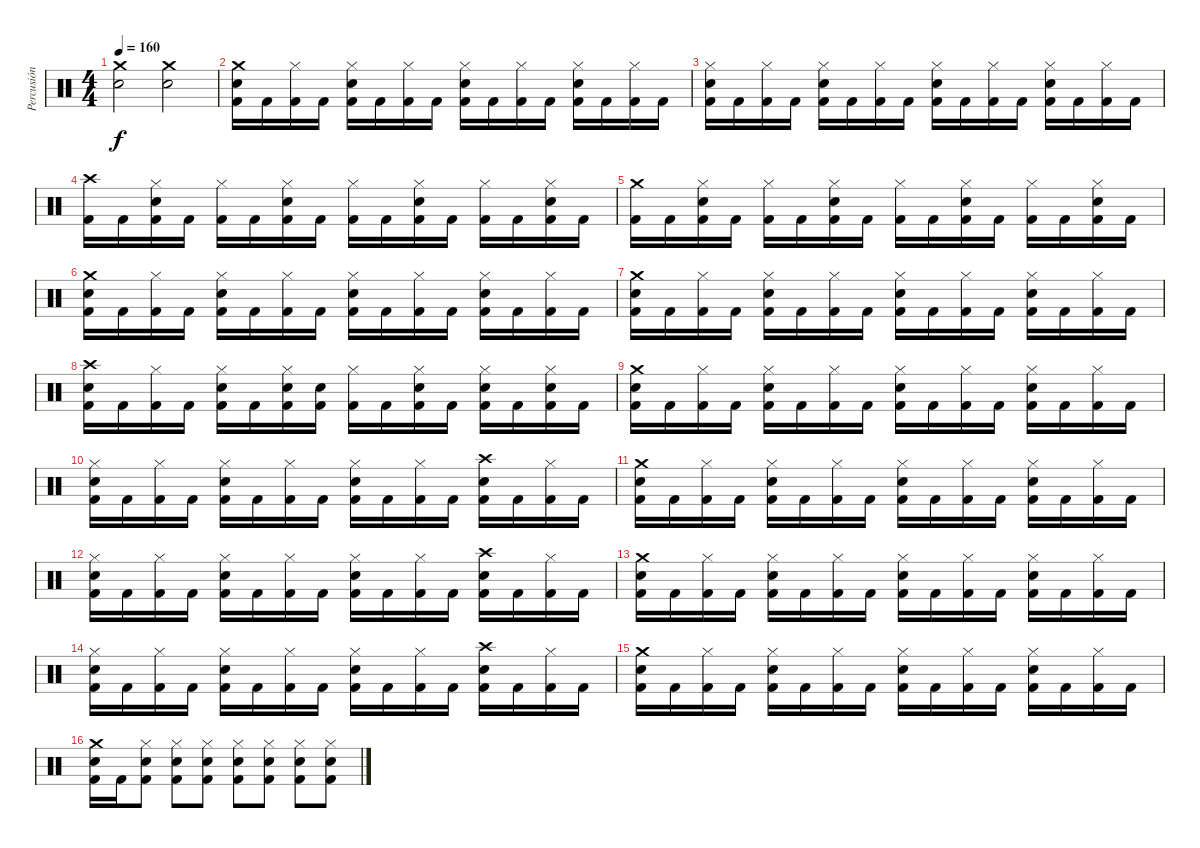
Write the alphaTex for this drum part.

\track ("Percusión" "Percusión") {instrument percussion}
\staff {score}
\articulation defaults
\ts (4 4)
\tempo 160
\clef neutral
\ks c
("Crash medium (hit)" "Snare (hit) 2").2{dy f} ("Crash medium (hit)" "Snare (hit) 2").2 |
("Crash medium (hit)" "Snare (hit) 2" "Kick (hit) 2").16 "Kick (hit) 2".16 ("Hi-Hat (closed)" "Kick (hit) 2").16 "Kick (hit) 2".16 ("Hi-Hat (closed)" "Snare (hit) 2" "Kick (hit) 2").16 "Kick (hit) 2".16 ("Hi-Hat (closed)" "Kick (hit) 2").16 "Kick (hit) 2".16 ("Hi-Hat (closed)" "Snare (hit) 2" "Kick (hit) 2").16 "Kick (hit) 2".16 ("Hi-Hat (closed)" "Kick (hit) 2").16 "Kick (hit) 2".16 ("Hi-Hat (closed)" "Snare (hit) 2" "Kick (hit) 2").16 "Kick (hit) 2".16 ("Hi-Hat (closed)" "Kick (hit) 2").16 "Kick (hit) 2".16 |
("Hi-Hat (closed)" "Snare (hit) 2" "Kick (hit) 2").16 "Kick (hit) 2".16 ("Hi-Hat (closed)" "Kick (hit) 2").16 "Kick (hit) 2".16 ("Hi-Hat (closed)" "Snare (hit) 2" "Kick (hit) 2").16 "Kick (hit) 2".16 ("Hi-Hat (closed)" "Kick (hit) 2").16 "Kick (hit) 2".16 ("Hi-Hat (closed)" "Snare (hit) 2" "Kick (hit) 2").16 "Kick (hit) 2".16 ("Hi-Hat (closed)" "Kick (hit) 2").16 "Kick (hit) 2".16 ("Hi-Hat (closed)" "Snare (hit) 2" "Kick (hit) 2").16 "Kick (hit) 2".16 ("Hi-Hat (closed)" "Kick (hit) 2").16 "Kick (hit) 2".16 |
("Crash high (hit)" "Kick (hit) 2").16 "Kick (hit) 2".16 ("Hi-Hat (closed)" "Snare (hit) 2" "Kick (hit) 2").16 "Kick (hit) 2".16 ("Hi-Hat (closed)" "Kick (hit) 2").16 "Kick (hit) 2".16 ("Hi-Hat (closed)" "Snare (hit) 2" "Kick (hit) 2").16 "Kick (hit) 2".16 ("Hi-Hat (closed)" "Kick (hit) 2").16 "Kick (hit) 2".16 ("Hi-Hat (closed)" "Snare (hit) 2" "Kick (hit) 2").16 "Kick (hit) 2".16 ("Hi-Hat (closed)" "Kick (hit) 2").16 "Kick (hit) 2".16 ("Hi-Hat (closed)" "Snare (hit) 2" "Kick (hit) 2").16 "Kick (hit) 2".16 |
("Crash medium (hit)" "Kick (hit) 2").16 "Kick (hit) 2".16 ("Hi-Hat (closed)" "Snare (hit) 2" "Kick (hit) 2").16 "Kick (hit) 2".16 ("Hi-Hat (closed)" "Kick (hit) 2").16 "Kick (hit) 2".16 ("Hi-Hat (closed)" "Snare (hit) 2" "Kick (hit) 2").16 "Kick (hit) 2".16 ("Hi-Hat (closed)" "Kick (hit) 2").16 "Kick (hit) 2".16 ("Hi-Hat (closed)" "Snare (hit) 2" "Kick (hit) 2").16 "Kick (hit) 2".16 ("Hi-Hat (closed)" "Kick (hit) 2").16 "Kick (hit) 2".16 ("Hi-Hat (closed)" "Snare (hit) 2" "Kick (hit) 2").16 "Kick (hit) 2".16 |
("Crash medium (hit)" "Snare (hit) 2" "Kick (hit) 2").16 "Kick (hit) 2".16 ("Hi-Hat (closed)" "Kick (hit) 2").16 "Kick (hit) 2".16 ("Hi-Hat (closed)" "Snare (hit) 2" "Kick (hit) 2").16 "Kick (hit) 2".16 ("Hi-Hat (closed)" "Kick (hit) 2").16 "Kick (hit) 2".16 ("Hi-Hat (closed)" "Snare (hit) 2" "Kick (hit) 2").16 "Kick (hit) 2".16 ("Hi-Hat (closed)" "Kick (hit) 2").16 "Kick (hit) 2".16 ("Hi-Hat (closed)" "Snare (hit) 2" "Kick (hit) 2").16 "Kick (hit) 2".16 ("Hi-Hat (closed)" "Kick (hit) 2").16 "Kick (hit) 2".16 |
("Crash medium (hit)" "Snare (hit) 2" "Kick (hit) 2").16 "Kick (hit) 2".16 ("Hi-Hat (closed)" "Kick (hit) 2").16 "Kick (hit) 2".16 ("Hi-Hat (closed)" "Snare (hit) 2" "Kick (hit) 2").16 "Kick (hit) 2".16 ("Hi-Hat (closed)" "Kick (hit) 2").16 "Kick (hit) 2".16 ("Hi-Hat (closed)" "Snare (hit) 2" "Kick (hit) 2").16 "Kick (hit) 2".16 ("Hi-Hat (closed)" "Kick (hit) 2").16 "Kick (hit) 2".16 ("Hi-Hat (closed)" "Snare (hit) 2" "Kick (hit) 2").16 "Kick (hit) 2".16 ("Hi-Hat (closed)" "Kick (hit) 2").16 "Kick (hit) 2".16 |
("Crash high (hit)" "Snare (hit) 2" "Kick (hit) 2").16 "Kick (hit) 2".16 ("Hi-Hat (closed)" "Kick (hit) 2").16 "Kick (hit) 2".16 ("Hi-Hat (closed)" "Snare (hit) 2" "Kick (hit) 2").16 "Kick (hit) 2".16 ("Hi-Hat (closed)" "Snare (hit) 2" "Kick (hit) 2").16 ("Snare (hit) 2" "Kick (hit) 2").16 ("Hi-Hat (closed)" "Kick (hit) 2").16 "Kick (hit) 2".16 ("Hi-Hat (closed)" "Snare (hit) 2" "Kick (hit) 2").16 "Kick (hit) 2".16 ("Hi-Hat (closed)" "Snare (hit) 2" "Kick (hit) 2").16 "Kick (hit) 2".16 ("Hi-Hat (closed)" "Snare (hit) 2" "Kick (hit) 2").16 "Kick (hit) 2".16 |
("Crash medium (hit)" "Snare (hit) 2" "Kick (hit) 2").16 "Kick (hit) 2".16 ("Hi-Hat (closed)" "Kick (hit) 2").16 "Kick (hit) 2".16 ("Hi-Hat (closed)" "Snare (hit) 2" "Kick (hit) 2").16 "Kick (hit) 2".16 ("Hi-Hat (closed)" "Kick (hit) 2").16 "Kick (hit) 2".16 ("Hi-Hat (closed)" "Snare (hit) 2" "Kick (hit) 2").16 "Kick (hit) 2".16 ("Hi-Hat (closed)" "Kick (hit) 2").16 "Kick (hit) 2".16 ("Hi-Hat (closed)" "Snare (hit) 2" "Kick (hit) 2").16 "Kick (hit) 2".16 ("Hi-Hat (closed)" "Kick (hit) 2").16 "Kick (hit) 2".16 |
("Hi-Hat (closed)" "Snare (hit) 2" "Kick (hit) 2").16 "Kick (hit) 2".16 ("Hi-Hat (closed)" "Kick (hit) 2").16 "Kick (hit) 2".16 ("Hi-Hat (closed)" "Snare (hit) 2" "Kick (hit) 2").16 "Kick (hit) 2".16 ("Hi-Hat (closed)" "Kick (hit) 2").16 "Kick (hit) 2".16 ("Hi-Hat (closed)" "Snare (hit) 2" "Kick (hit) 2").16 "Kick (hit) 2".16 ("Hi-Hat (closed)" "Kick (hit) 2").16 "Kick (hit) 2".16 ("Crash high (hit)" "Snare (hit) 2" "Kick (hit) 2").16 "Kick (hit) 2".16 ("Hi-Hat (closed)" "Kick (hit) 2").16 "Kick (hit) 2".16 |
("Crash medium (hit)" "Snare (hit) 2" "Kick (hit) 2").16 "Kick (hit) 2".16 ("Hi-Hat (closed)" "Kick (hit) 2").16 "Kick (hit) 2".16 ("Hi-Hat (closed)" "Snare (hit) 2" "Kick (hit) 2").16 "Kick (hit) 2".16 ("Hi-Hat (closed)" "Kick (hit) 2").16 "Kick (hit) 2".16 ("Hi-Hat (closed)" "Snare (hit) 2" "Kick (hit) 2").16 "Kick (hit) 2".16 ("Hi-Hat (closed)" "Kick (hit) 2").16 "Kick (hit) 2".16 ("Hi-Hat (closed)" "Snare (hit) 2" "Kick (hit) 2").16 "Kick (hit) 2".16 ("Hi-Hat (closed)" "Kick (hit) 2").16 "Kick (hit) 2".16 |
("Hi-Hat (closed)" "Snare (hit) 2" "Kick (hit) 2").16 "Kick (hit) 2".16 ("Hi-Hat (closed)" "Kick (hit) 2").16 "Kick (hit) 2".16 ("Hi-Hat (closed)" "Snare (hit) 2" "Kick (hit) 2").16 "Kick (hit) 2".16 ("Hi-Hat (closed)" "Kick (hit) 2").16 "Kick (hit) 2".16 ("Hi-Hat (closed)" "Snare (hit) 2" "Kick (hit) 2").16 "Kick (hit) 2".16 ("Hi-Hat (closed)" "Kick (hit) 2").16 "Kick (hit) 2".16 ("Crash high (hit)" "Snare (hit) 2" "Kick (hit) 2").16 "Kick (hit) 2".16 ("Hi-Hat (closed)" "Kick (hit) 2").16 "Kick (hit) 2".16 |
("Crash medium (hit)" "Snare (hit) 2" "Kick (hit) 2").16 "Kick (hit) 2".16 ("Hi-Hat (closed)" "Kick (hit) 2").16 "Kick (hit) 2".16 ("Hi-Hat (closed)" "Snare (hit) 2" "Kick (hit) 2").16 "Kick (hit) 2".16 ("Hi-Hat (closed)" "Kick (hit) 2").16 "Kick (hit) 2".16 ("Hi-Hat (closed)" "Snare (hit) 2" "Kick (hit) 2").16 "Kick (hit) 2".16 ("Hi-Hat (closed)" "Kick (hit) 2").16 "Kick (hit) 2".16 ("Hi-Hat (closed)" "Snare (hit) 2" "Kick (hit) 2").16 "Kick (hit) 2".16 ("Hi-Hat (closed)" "Kick (hit) 2").16 "Kick (hit) 2".16 |
("Hi-Hat (closed)" "Snare (hit) 2" "Kick (hit) 2").16 "Kick (hit) 2".16 ("Hi-Hat (closed)" "Kick (hit) 2").16 "Kick (hit) 2".16 ("Hi-Hat (closed)" "Snare (hit) 2" "Kick (hit) 2").16 "Kick (hit) 2".16 ("Hi-Hat (closed)" "Kick (hit) 2").16 "Kick (hit) 2".16 ("Hi-Hat (closed)" "Snare (hit) 2" "Kick (hit) 2").16 "Kick (hit) 2".16 ("Hi-Hat (closed)" "Kick (hit) 2").16 "Kick (hit) 2".16 ("Crash high (hit)" "Snare (hit) 2" "Kick (hit) 2").16 "Kick (hit) 2".16 ("Hi-Hat (closed)" "Kick (hit) 2").16 "Kick (hit) 2".16 |
("Crash medium (hit)" "Snare (hit) 2" "Kick (hit) 2").16 "Kick (hit) 2".16 ("Hi-Hat (closed)" "Kick (hit) 2").16 "Kick (hit) 2".16 ("Hi-Hat (closed)" "Snare (hit) 2" "Kick (hit) 2").16 "Kick (hit) 2".16 ("Hi-Hat (closed)" "Kick (hit) 2").16 "Kick (hit) 2".16 ("Hi-Hat (closed)" "Snare (hit) 2" "Kick (hit) 2").16 "Kick (hit) 2".16 ("Hi-Hat (closed)" "Kick (hit) 2").16 "Kick (hit) 2".16 ("Hi-Hat (closed)" "Snare (hit) 2" "Kick (hit) 2").16 "Kick (hit) 2".16 ("Hi-Hat (closed)" "Kick (hit) 2").16 "Kick (hit) 2".16 |
("Crash medium (hit)" "Snare (hit) 2" "Kick (hit) 2").16 "Kick (hit) 2".16 ("Hi-Hat (closed)" "Snare (hit) 2" "Kick (hit) 2").8 ("Hi-Hat (closed)" "Snare (hit) 2" "Kick (hit) 2").8 ("Hi-Hat (closed)" "Snare (hit) 2" "Kick (hit) 2").8 ("Hi-Hat (closed)" "Snare (hit) 2" "Kick (hit) 2").8 ("Hi-Hat (closed)" "Snare (hit) 2" "Kick (hit) 2").8 ("Hi-Hat (closed)" "Snare (hit) 2" "Kick (hit) 2").8 ("Hi-Hat (closed)" "Snare (hit) 2" "Kick (hit) 2").8
